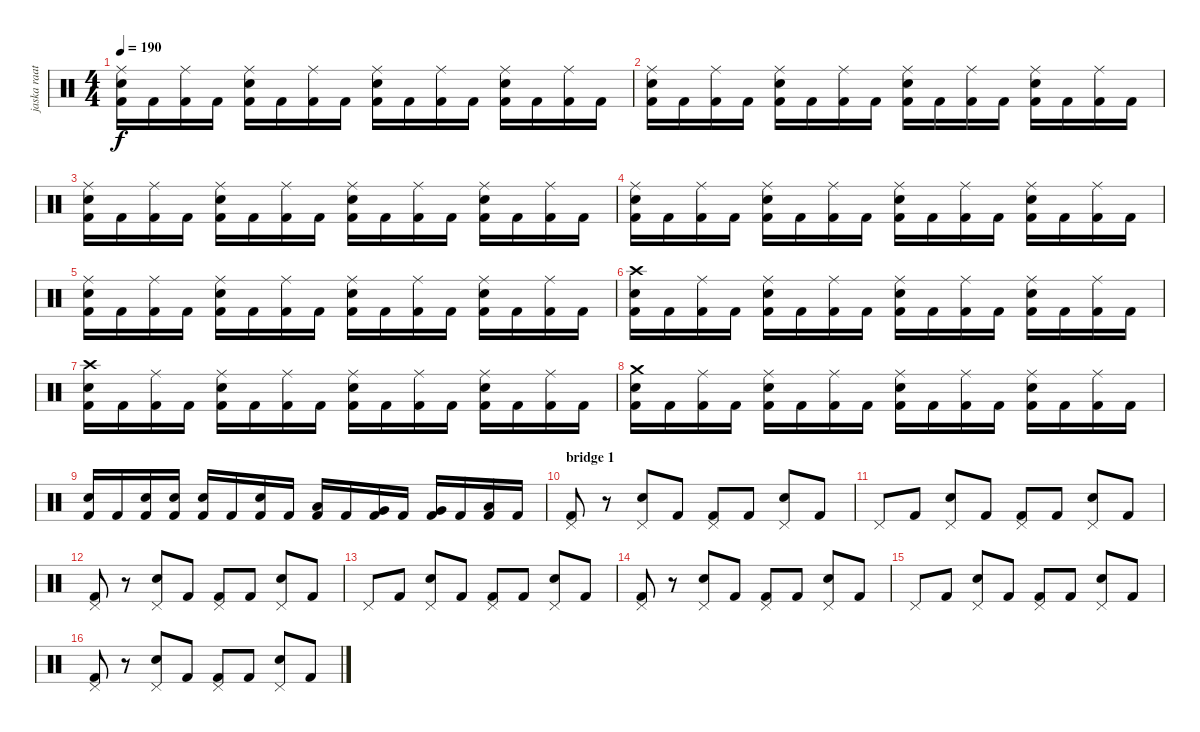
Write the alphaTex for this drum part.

\track ("jaska raatikainen" "jaska raat") {instrument percussion}
\staff {score}
\articulation defaults
\ts (4 4)
\tempo 190
\clef neutral
\ks c
("Ride (middle)" "Snare (hit) 2" "Kick (hit) 2").16{dy f} "Kick (hit) 2".16 ("Ride (middle)" "Kick (hit) 2").16 "Kick (hit) 2".16 ("Ride (middle)" "Snare (hit) 2" "Kick (hit) 2").16 "Kick (hit) 2".16 ("Ride (middle)" "Kick (hit) 2").16 "Kick (hit) 2".16 ("Ride (middle)" "Snare (hit) 2" "Kick (hit) 2").16 "Kick (hit) 2".16 ("Ride (middle)" "Kick (hit) 2").16 "Kick (hit) 2".16 ("Ride (middle)" "Snare (hit) 2" "Kick (hit) 2").16 "Kick (hit) 2".16 ("Ride (middle)" "Kick (hit) 2").16 "Kick (hit) 2".16 |
("Ride (middle)" "Snare (hit) 2" "Kick (hit) 2").16 "Kick (hit) 2".16 ("Ride (middle)" "Kick (hit) 2").16 "Kick (hit) 2".16 ("Ride (middle)" "Snare (hit) 2" "Kick (hit) 2").16 "Kick (hit) 2".16 ("Ride (middle)" "Kick (hit) 2").16 "Kick (hit) 2".16 ("Ride (middle)" "Snare (hit) 2" "Kick (hit) 2").16 "Kick (hit) 2".16 ("Ride (middle)" "Kick (hit) 2").16 "Kick (hit) 2".16 ("Ride (middle)" "Snare (hit) 2" "Kick (hit) 2").16 "Kick (hit) 2".16 ("Ride (middle)" "Kick (hit) 2").16 "Kick (hit) 2".16 |
("Ride (middle)" "Snare (hit) 2" "Kick (hit) 2").16 "Kick (hit) 2".16 ("Ride (middle)" "Kick (hit) 2").16 "Kick (hit) 2".16 ("Ride (middle)" "Snare (hit) 2" "Kick (hit) 2").16 "Kick (hit) 2".16 ("Ride (middle)" "Kick (hit) 2").16 "Kick (hit) 2".16 ("Ride (middle)" "Snare (hit) 2" "Kick (hit) 2").16 "Kick (hit) 2".16 ("Ride (middle)" "Kick (hit) 2").16 "Kick (hit) 2".16 ("Ride (middle)" "Snare (hit) 2" "Kick (hit) 2").16 "Kick (hit) 2".16 ("Ride (middle)" "Kick (hit) 2").16 "Kick (hit) 2".16 |
("Ride (middle)" "Snare (hit) 2" "Kick (hit) 2").16 "Kick (hit) 2".16 ("Ride (middle)" "Kick (hit) 2").16 "Kick (hit) 2".16 ("Ride (middle)" "Snare (hit) 2" "Kick (hit) 2").16 "Kick (hit) 2".16 ("Ride (middle)" "Kick (hit) 2").16 "Kick (hit) 2".16 ("Ride (middle)" "Snare (hit) 2" "Kick (hit) 2").16 "Kick (hit) 2".16 ("Ride (middle)" "Kick (hit) 2").16 "Kick (hit) 2".16 ("Ride (middle)" "Snare (hit) 2" "Kick (hit) 2").16 "Kick (hit) 2".16 ("Ride (middle)" "Kick (hit) 2").16 "Kick (hit) 2".16 |
("Ride (middle)" "Snare (hit) 2" "Kick (hit) 2").16 "Kick (hit) 2".16 ("Ride (middle)" "Kick (hit) 2").16 "Kick (hit) 2".16 ("Ride (middle)" "Snare (hit) 2" "Kick (hit) 2").16 "Kick (hit) 2".16 ("Ride (middle)" "Kick (hit) 2").16 "Kick (hit) 2".16 ("Ride (middle)" "Snare (hit) 2" "Kick (hit) 2").16 "Kick (hit) 2".16 ("Ride (middle)" "Kick (hit) 2").16 "Kick (hit) 2".16 ("Ride (middle)" "Snare (hit) 2" "Kick (hit) 2").16 "Kick (hit) 2".16 ("Ride (middle)" "Kick (hit) 2").16 "Kick (hit) 2".16 |
("Crash high (hit)" "Snare (hit) 2" "Kick (hit) 2").16 "Kick (hit) 2".16 ("Ride (middle)" "Kick (hit) 2").16 "Kick (hit) 2".16 ("Ride (middle)" "Snare (hit) 2" "Kick (hit) 2").16 "Kick (hit) 2".16 ("Ride (middle)" "Kick (hit) 2").16 "Kick (hit) 2".16 ("Ride (middle)" "Snare (hit) 2" "Kick (hit) 2").16 "Kick (hit) 2".16 ("Ride (middle)" "Kick (hit) 2").16 "Kick (hit) 2".16 ("Ride (middle)" "Snare (hit) 2" "Kick (hit) 2").16 "Kick (hit) 2".16 ("Ride (middle)" "Kick (hit) 2").16 "Kick (hit) 2".16 |
("Crash high (hit)" "Snare (hit) 2" "Kick (hit) 2").16 "Kick (hit) 2".16 ("Ride (middle)" "Kick (hit) 2").16 "Kick (hit) 2".16 ("Ride (middle)" "Snare (hit) 2" "Kick (hit) 2").16 "Kick (hit) 2".16 ("Ride (middle)" "Kick (hit) 2").16 "Kick (hit) 2".16 ("Ride (middle)" "Snare (hit) 2" "Kick (hit) 2").16 "Kick (hit) 2".16 ("Ride (middle)" "Kick (hit) 2").16 "Kick (hit) 2".16 ("Ride (middle)" "Snare (hit) 2" "Kick (hit) 2").16 "Kick (hit) 2".16 ("Ride (middle)" "Kick (hit) 2").16 "Kick (hit) 2".16 |
("Crash medium (hit)" "Snare (hit) 2" "Kick (hit) 2").16 "Kick (hit) 2".16 ("Ride (middle)" "Kick (hit) 2").16 "Kick (hit) 2".16 ("Ride (middle)" "Snare (hit) 2" "Kick (hit) 2").16 "Kick (hit) 2".16 ("Ride (middle)" "Kick (hit) 2").16 "Kick (hit) 2".16 ("Ride (middle)" "Snare (hit) 2" "Kick (hit) 2").16 "Kick (hit) 2".16 ("Ride (middle)" "Kick (hit) 2").16 "Kick (hit) 2".16 ("Ride (middle)" "Snare (hit) 2" "Kick (hit) 2").16 "Kick (hit) 2".16 ("Ride (middle)" "Kick (hit) 2").16 "Kick (hit) 2".16 |
("Snare (hit) 2" "Kick (hit) 2").16 "Kick (hit) 2".16 ("Snare (hit) 2" "Kick (hit) 2").16 ("Snare (hit) 2" "Kick (hit) 2").16 ("Snare (hit) 2" "Kick (hit) 2").16 "Kick (hit) 2".16 ("Snare (hit) 2" "Kick (hit) 2").16 "Kick (hit) 2".16 ("Low Tom (hit)" "Kick (hit) 2").16 "Kick (hit) 2".16 ("Very Low Tom (hit)" "Kick (hit) 2").16 "Kick (hit) 2".16 ("Very Low Tom (hit)" "Kick (hit) 2").16 "Kick (hit) 2".16 ("Low Floor Tom (hit)" "Kick (hit) 2").16 "Kick (hit) 2".16 |
\section ("" "bridge 1")
("Pedal Hi-Hat (hit)" "Kick (hit) 2").8 r.8 ("Pedal Hi-Hat (hit)" "Snare (hit) 2").8 "Kick (hit) 2".8 ("Pedal Hi-Hat (hit)" "Kick (hit) 2").8 "Kick (hit) 2".8 ("Pedal Hi-Hat (hit)" "Snare (hit) 2").8 "Kick (hit) 2".8 |
"Pedal Hi-Hat (hit)".8 "Kick (hit) 2".8 ("Pedal Hi-Hat (hit)" "Snare (hit) 2").8 "Kick (hit) 2".8 ("Pedal Hi-Hat (hit)" "Kick (hit) 2").8 "Kick (hit) 2".8 ("Pedal Hi-Hat (hit)" "Snare (hit) 2").8 "Kick (hit) 2".8 |
("Pedal Hi-Hat (hit)" "Kick (hit) 2").8 r.8 ("Pedal Hi-Hat (hit)" "Snare (hit) 2").8 "Kick (hit) 2".8 ("Pedal Hi-Hat (hit)" "Kick (hit) 2").8 "Kick (hit) 2".8 ("Pedal Hi-Hat (hit)" "Snare (hit) 2").8 "Kick (hit) 2".8 |
"Pedal Hi-Hat (hit)".8 "Kick (hit) 2".8 ("Pedal Hi-Hat (hit)" "Snare (hit) 2").8 "Kick (hit) 2".8 ("Pedal Hi-Hat (hit)" "Kick (hit) 2").8 "Kick (hit) 2".8 ("Pedal Hi-Hat (hit)" "Snare (hit) 2").8 "Kick (hit) 2".8 |
("Pedal Hi-Hat (hit)" "Kick (hit) 2").8 r.8 ("Pedal Hi-Hat (hit)" "Snare (hit) 2").8 "Kick (hit) 2".8 ("Pedal Hi-Hat (hit)" "Kick (hit) 2").8 "Kick (hit) 2".8 ("Pedal Hi-Hat (hit)" "Snare (hit) 2").8 "Kick (hit) 2".8 |
"Pedal Hi-Hat (hit)".8 "Kick (hit) 2".8 ("Pedal Hi-Hat (hit)" "Snare (hit) 2").8 "Kick (hit) 2".8 ("Pedal Hi-Hat (hit)" "Kick (hit) 2").8 "Kick (hit) 2".8 ("Pedal Hi-Hat (hit)" "Snare (hit) 2").8 "Kick (hit) 2".8 |
("Pedal Hi-Hat (hit)" "Kick (hit) 2").8 r.8 ("Pedal Hi-Hat (hit)" "Snare (hit) 2").8 "Kick (hit) 2".8 ("Pedal Hi-Hat (hit)" "Kick (hit) 2").8 "Kick (hit) 2".8 ("Pedal Hi-Hat (hit)" "Snare (hit) 2").8 "Kick (hit) 2".8
